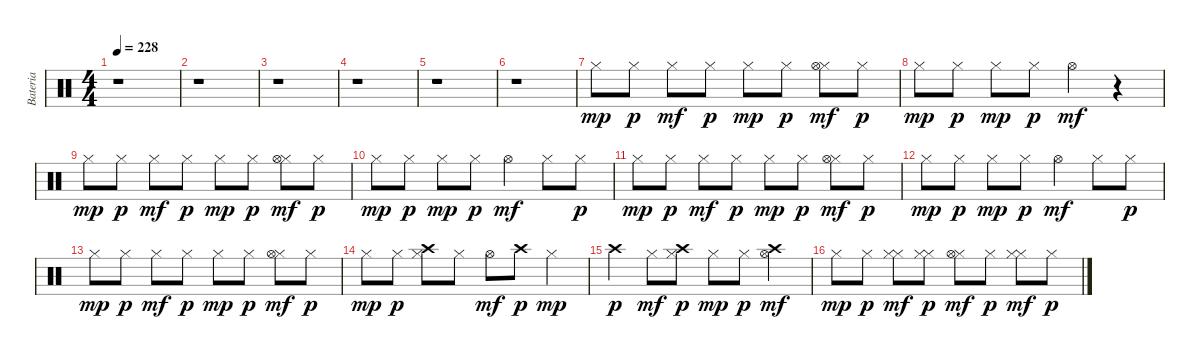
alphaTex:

\track ("Bateria" "Bateria") {instrument percussion}
\staff {score}
\articulation defaults
\ts (4 4)
\tempo 228
\clef neutral
\ks c
r.1{dy fff} |
r.1 |
r.1 |
r.1 |
r.1 |
r.1 |
"Hi-Hat (closed)".8{dy mp} "Hi-Hat (closed)".8{dy p} "Hi-Hat (closed)".8{dy mf} "Hi-Hat (closed)".8{dy p} "Hi-Hat (closed)".8{dy mp} "Hi-Hat (closed)".8{dy p} ("Hi-Hat (closed)" "Hi-Hat (open)").8{dy mf} "Hi-Hat (closed)".8{dy p} |
"Hi-Hat (closed)".8{dy mp} "Hi-Hat (closed)".8{dy p} "Hi-Hat (closed)".8{dy mp} "Hi-Hat (closed)".8{dy p} "Hi-Hat (open)".4{dy mf} r.4 |
"Hi-Hat (closed)".8{dy mp} "Hi-Hat (closed)".8{dy p} "Hi-Hat (closed)".8{dy mf} "Hi-Hat (closed)".8{dy p} "Hi-Hat (closed)".8{dy mp} "Hi-Hat (closed)".8{dy p} ("Hi-Hat (closed)" "Hi-Hat (open)").8{dy mf} "Hi-Hat (closed)".8{dy p} |
"Hi-Hat (closed)".8{dy mp} "Hi-Hat (closed)".8{dy p} "Hi-Hat (closed)".8{dy mp} "Hi-Hat (closed)".8{dy p} "Hi-Hat (open)".4{dy mf} "Hi-Hat (closed)".8 "Hi-Hat (closed)".8{dy p} |
"Hi-Hat (closed)".8{dy mp} "Hi-Hat (closed)".8{dy p} "Hi-Hat (closed)".8{dy mf} "Hi-Hat (closed)".8{dy p} "Hi-Hat (closed)".8{dy mp} "Hi-Hat (closed)".8{dy p} ("Hi-Hat (closed)" "Hi-Hat (open)").8{dy mf} "Hi-Hat (closed)".8{dy p} |
"Hi-Hat (closed)".8{dy mp} "Hi-Hat (closed)".8{dy p} "Hi-Hat (closed)".8{dy mp} "Hi-Hat (closed)".8{dy p} "Hi-Hat (open)".4{dy mf} "Hi-Hat (closed)".8 "Hi-Hat (closed)".8{dy p} |
"Hi-Hat (closed)".8{dy mp} "Hi-Hat (closed)".8{dy p} "Hi-Hat (closed)".8{dy mf} "Hi-Hat (closed)".8{dy p} "Hi-Hat (closed)".8{dy mp} "Hi-Hat (closed)".8{dy p} ("Hi-Hat (closed)" "Hi-Hat (open)").8{dy mf} "Hi-Hat (closed)".8{dy p} |
"Hi-Hat (closed)".8{dy mp} "Hi-Hat (closed)".8{dy p} ("Hi-Hat (closed)" "Crash high (hit)").8 "Hi-Hat (closed)".8 "Hi-Hat (open)".8{dy mf} "Crash high (hit)".8{dy p} "Hi-Hat (closed)".4{dy mp} |
"Crash high (hit)".4{dy p} "Hi-Hat (closed)".8{dy mf} ("Crash high (hit)" "Hi-Hat (closed)").8{dy p} "Hi-Hat (closed)".8{dy mp} "Hi-Hat (closed)".8{dy p} ("Crash high (hit)" "Hi-Hat (open)").4{dy mf} |
"Hi-Hat (closed)".8{dy mp} "Hi-Hat (closed)".8{dy p} ("Hi-Hat (closed)" "Hi-Hat (closed)").8{dy mf} ("Hi-Hat (closed)" "Hi-Hat (closed)").8{dy p} ("Hi-Hat (closed)" "Hi-Hat (open)").8{dy mf} "Hi-Hat (closed)".8{dy p} ("Hi-Hat (closed)" "Hi-Hat (closed)").8{dy mf} "Hi-Hat (closed)".8{dy p}
